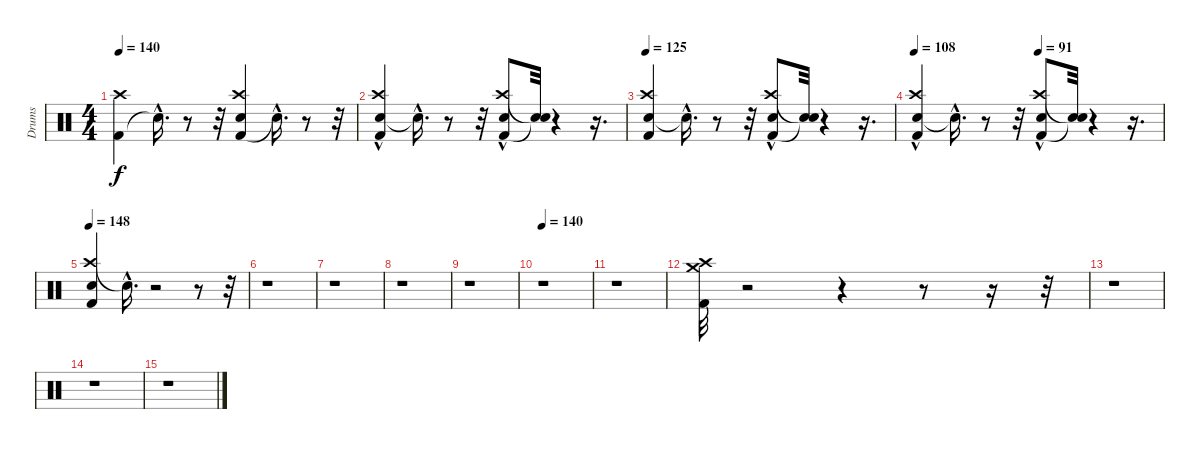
\track ("Drums" "Drums") {instrument percussion}
\staff {score}
\articulation defaults
\ts (4 4)
\tempo 140
\clef neutral
\ks c
("Kick (hit) 2" "Crash high (hit)").4{dy f} "Snare (hit)"{hac t}.16{d} r.8 r.32 ("Kick (hit) 2" "Snare (hit) 2" "Crash high (hit)").4 "Snare (hit)"{hac t}.16{d} r.8 r.32 |
("Snare (hit) 2"{hac} "Crash high (hit)" "Kick (hit) 2").4 "Snare (hit)"{hac t}.16{d} r.8 r.32 ("Kick (hit) 2" "Crash high (hit)"{hac} "Snare (hit) 2").8 ("Snare (hit)"{t} "Snare (hit)"{t}).32 r.4 r.16{d} |
\tempo 125
("Snare (hit) 2" "Crash high (hit)" "Kick (hit) 2").4 "Snare (hit)"{hac t}.16{d} r.8 r.32 ("Kick (hit) 2" "Crash high (hit)"{hac} "Snare (hit) 2").8 ("Snare (hit)"{t} "Snare (hit)"{t}).32 r.4 r.16{d} |
\tempo 108
\tempo (91 0.5)
("Snare (hit) 2"{hac} "Kick (hit) 2" "Crash high (hit)").4 "Snare (hit)"{hac t}.16{d} r.8 r.32 ("Kick (hit) 2" "Crash high (hit)"{hac} "Snare (hit) 2").8 ("Snare (hit)"{t} "Snare (hit)"{t}).32 r.4 r.16{d} |
\tempo 148
("Crash high (hit)" "Kick (hit) 2" "Snare (hit) 2").4 "Snare (hit)"{hac t}.16{d} r.2 r.8 r.32 |
r.1 |
r.1 |
r.1 |
r.1 |
\tempo 140
r.1 |
r.1 |
("Crash medium (hit)" "Crash high (hit)" "Kick (hit) 2").32 r.2 r.4 r.8 r.16 r.32 |
r.1 |
r.1 |
r.1
